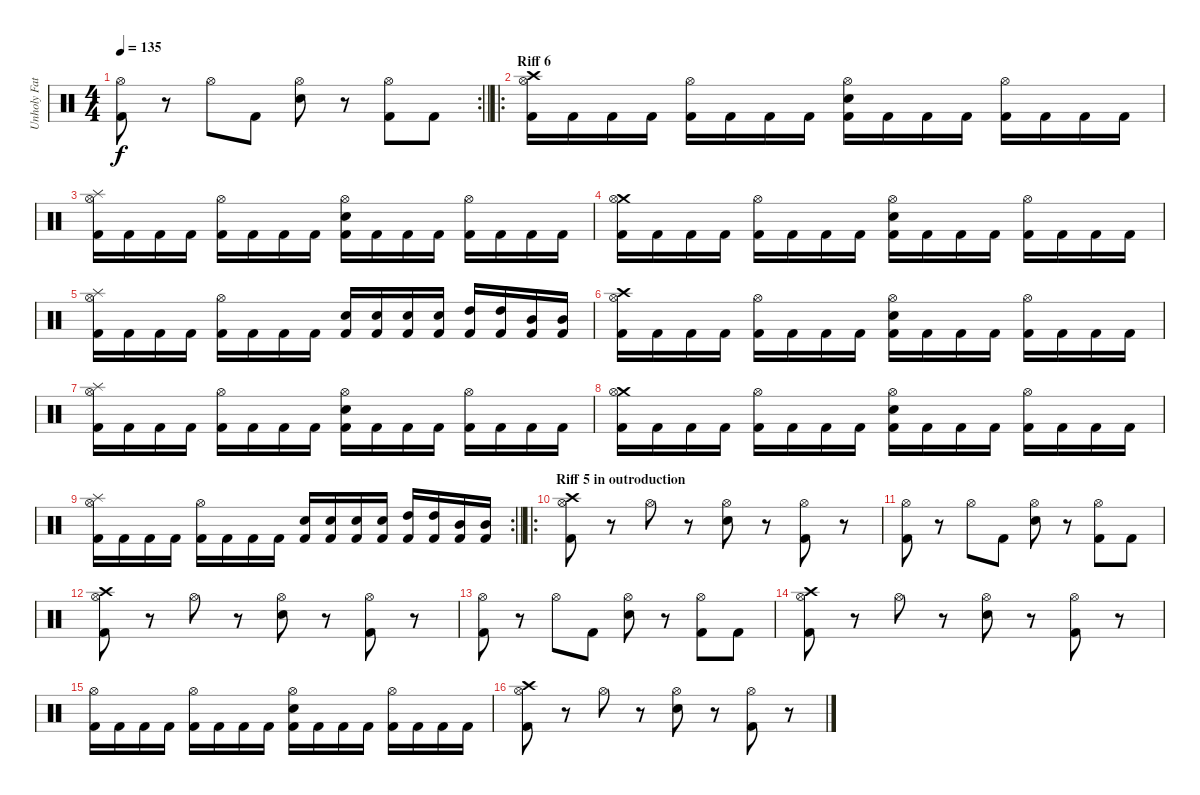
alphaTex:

\track ("Unholy Father" "Unholy Fat") {instrument percussion}
\staff {score}
\articulation defaults
\rc 2
\ts (4 4)
\tempo 135
\clef neutral
\barLineRight lightlight
\ks c
("Hi-Hat (open)" "Kick (hit) 2").8{dy f} r.8 "Hi-Hat (open)".8 "Kick (hit) 2".8 ("Hi-Hat (open)" "Snare (hit) 2").8 r.8 ("Hi-Hat (open)" "Kick (hit) 2").8 "Kick (hit) 2".8 |
\ro
\section ("" "Riff 6")
("Crash high (hit)" "Hi-Hat (open)" "Kick (hit) 2").16 "Kick (hit) 2".16 "Kick (hit) 2".16 "Kick (hit) 2".16 ("Hi-Hat (open)" "Kick (hit) 2").16 "Kick (hit) 2".16 "Kick (hit) 2".16 "Kick (hit) 2".16 ("Hi-Hat (open)" "Snare (hit) 2" "Kick (hit) 2").16 "Kick (hit) 2".16 "Kick (hit) 2".16 "Kick (hit) 2".16 ("Hi-Hat (open)" "Kick (hit) 2").16 "Kick (hit) 2".16 "Kick (hit) 2".16 "Kick (hit) 2".16 |
("Splash (hit)" "Hi-Hat (open)" "Kick (hit) 2").16 "Kick (hit) 2".16 "Kick (hit) 2".16 "Kick (hit) 2".16 ("Hi-Hat (open)" "Kick (hit) 2").16 "Kick (hit) 2".16 "Kick (hit) 2".16 "Kick (hit) 2".16 ("Hi-Hat (open)" "Snare (hit) 2" "Kick (hit) 2").16 "Kick (hit) 2".16 "Kick (hit) 2".16 "Kick (hit) 2".16 ("Hi-Hat (open)" "Kick (hit) 2").16 "Kick (hit) 2".16 "Kick (hit) 2".16 "Kick (hit) 2".16 |
("Crash medium (hit)" "Hi-Hat (open)" "Kick (hit) 2").16 "Kick (hit) 2".16 "Kick (hit) 2".16 "Kick (hit) 2".16 ("Hi-Hat (open)" "Kick (hit) 2").16 "Kick (hit) 2".16 "Kick (hit) 2".16 "Kick (hit) 2".16 ("Hi-Hat (open)" "Snare (hit) 2" "Kick (hit) 2").16 "Kick (hit) 2".16 "Kick (hit) 2".16 "Kick (hit) 2".16 ("Hi-Hat (open)" "Kick (hit) 2").16 "Kick (hit) 2".16 "Kick (hit) 2".16 "Kick (hit) 2".16 |
("Splash (hit)" "Hi-Hat (open)" "Kick (hit) 2").16 "Kick (hit) 2".16 "Kick (hit) 2".16 "Kick (hit) 2".16 ("Hi-Hat (open)" "Kick (hit) 2").16 "Kick (hit) 2".16 "Kick (hit) 2".16 "Kick (hit) 2".16 ("Snare (hit) 2" "Kick (hit) 2").16 ("Snare (hit) 2" "Kick (hit) 2").16 ("Snare (hit) 2" "Kick (hit) 2").16 ("Snare (hit) 2" "Kick (hit) 2").16 ("High Tom (hit)" "Kick (hit) 2").16 ("High Tom (hit)" "Kick (hit) 2").16 ("Mid Tom (hit)" "Kick (hit) 2").16 ("Mid Tom (hit)" "Kick (hit) 2").16 |
("Crash high (hit)" "Hi-Hat (open)" "Kick (hit) 2").16 "Kick (hit) 2".16 "Kick (hit) 2".16 "Kick (hit) 2".16 ("Hi-Hat (open)" "Kick (hit) 2").16 "Kick (hit) 2".16 "Kick (hit) 2".16 "Kick (hit) 2".16 ("Hi-Hat (open)" "Snare (hit) 2" "Kick (hit) 2").16 "Kick (hit) 2".16 "Kick (hit) 2".16 "Kick (hit) 2".16 ("Hi-Hat (open)" "Kick (hit) 2").16 "Kick (hit) 2".16 "Kick (hit) 2".16 "Kick (hit) 2".16 |
("Splash (hit)" "Hi-Hat (open)" "Kick (hit) 2").16 "Kick (hit) 2".16 "Kick (hit) 2".16 "Kick (hit) 2".16 ("Hi-Hat (open)" "Kick (hit) 2").16 "Kick (hit) 2".16 "Kick (hit) 2".16 "Kick (hit) 2".16 ("Hi-Hat (open)" "Snare (hit) 2" "Kick (hit) 2").16 "Kick (hit) 2".16 "Kick (hit) 2".16 "Kick (hit) 2".16 ("Hi-Hat (open)" "Kick (hit) 2").16 "Kick (hit) 2".16 "Kick (hit) 2".16 "Kick (hit) 2".16 |
("Crash medium (hit)" "Hi-Hat (open)" "Kick (hit) 2").16 "Kick (hit) 2".16 "Kick (hit) 2".16 "Kick (hit) 2".16 ("Hi-Hat (open)" "Kick (hit) 2").16 "Kick (hit) 2".16 "Kick (hit) 2".16 "Kick (hit) 2".16 ("Hi-Hat (open)" "Snare (hit) 2" "Kick (hit) 2").16 "Kick (hit) 2".16 "Kick (hit) 2".16 "Kick (hit) 2".16 ("Hi-Hat (open)" "Kick (hit) 2").16 "Kick (hit) 2".16 "Kick (hit) 2".16 "Kick (hit) 2".16 |
\rc 2
\barLineRight lightlight
("Splash (hit)" "Hi-Hat (open)" "Kick (hit) 2").16 "Kick (hit) 2".16 "Kick (hit) 2".16 "Kick (hit) 2".16 ("Hi-Hat (open)" "Kick (hit) 2").16 "Kick (hit) 2".16 "Kick (hit) 2".16 "Kick (hit) 2".16 ("Snare (hit) 2" "Kick (hit) 2").16 ("Snare (hit) 2" "Kick (hit) 2").16 ("Snare (hit) 2" "Kick (hit) 2").16 ("Snare (hit) 2" "Kick (hit) 2").16 ("High Tom (hit)" "Kick (hit) 2").16 ("High Tom (hit)" "Kick (hit) 2").16 ("Mid Tom (hit)" "Kick (hit) 2").16 ("Mid Tom (hit)" "Kick (hit) 2").16 |
\ro
\section ("" "Riff 5 in outroduction")
("Crash high (hit)" "Hi-Hat (open)" "Kick (hit) 2").8 r.8 "Hi-Hat (open)".8 r.8 ("Hi-Hat (open)" "Snare (hit) 2").8 r.8 ("Hi-Hat (open)" "Kick (hit) 2").8 r.8 |
("Hi-Hat (open)" "Kick (hit) 2").8 r.8 "Hi-Hat (open)".8 "Kick (hit) 2".8 ("Hi-Hat (open)" "Snare (hit) 2").8 r.8 ("Hi-Hat (open)" "Kick (hit) 2").8 "Kick (hit) 2".8 |
("Crash high (hit)" "Hi-Hat (open)" "Kick (hit) 2").8 r.8 "Hi-Hat (open)".8 r.8 ("Hi-Hat (open)" "Snare (hit) 2").8 r.8 ("Hi-Hat (open)" "Kick (hit) 2").8 r.8 |
("Hi-Hat (open)" "Kick (hit) 2").8 r.8 "Hi-Hat (open)".8 "Kick (hit) 2".8 ("Hi-Hat (open)" "Snare (hit) 2").8 r.8 ("Hi-Hat (open)" "Kick (hit) 2").8 "Kick (hit) 2".8 |
("Crash high (hit)" "Hi-Hat (open)" "Kick (hit) 2").8 r.8 "Hi-Hat (open)".8 r.8 ("Hi-Hat (open)" "Snare (hit) 2").8 r.8 ("Hi-Hat (open)" "Kick (hit) 2").8 r.8 |
("Hi-Hat (open)" "Kick (hit) 2").16 "Kick (hit) 2".16 "Kick (hit) 2".16 "Kick (hit) 2".16 ("Hi-Hat (open)" "Kick (hit) 2").16 "Kick (hit) 2".16 "Kick (hit) 2".16 "Kick (hit) 2".16 ("Hi-Hat (open)" "Snare (hit) 2" "Kick (hit) 2").16 "Kick (hit) 2".16 "Kick (hit) 2".16 "Kick (hit) 2".16 ("Hi-Hat (open)" "Kick (hit) 2").16 "Kick (hit) 2".16 "Kick (hit) 2".16 "Kick (hit) 2".16 |
("Crash high (hit)" "Hi-Hat (open)" "Kick (hit) 2").8 r.8 "Hi-Hat (open)".8 r.8 ("Hi-Hat (open)" "Snare (hit) 2").8 r.8 ("Hi-Hat (open)" "Kick (hit) 2").8 r.8
